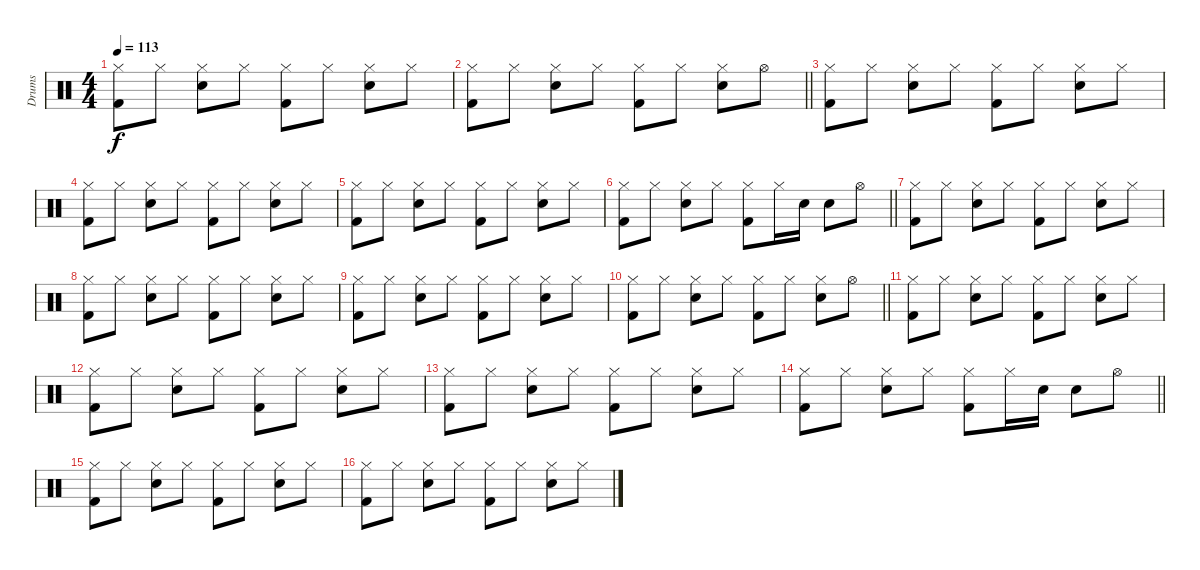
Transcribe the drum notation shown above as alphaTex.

\track ("Drums" "Drums") {instrument percussion}
\staff {score}
\articulation defaults
\ts (4 4)
\tempo 113
\clef neutral
\ks c
("Hi-Hat (closed)" "Kick (hit) 2").8{dy f} "Hi-Hat (closed)".8 ("Hi-Hat (closed)" "Electric Snare (hit)").8 "Hi-Hat (closed)".8 ("Hi-Hat (closed)" "Kick (hit) 2").8 "Hi-Hat (closed)".8 ("Hi-Hat (closed)" "Electric Snare (hit)").8 "Hi-Hat (closed)".8 |
\barLineRight lightlight
("Hi-Hat (closed)" "Kick (hit) 2").8 "Hi-Hat (closed)".8 ("Hi-Hat (closed)" "Electric Snare (hit)").8 "Hi-Hat (closed)".8 ("Hi-Hat (closed)" "Kick (hit) 2").8 "Hi-Hat (closed)".8 ("Hi-Hat (closed)" "Electric Snare (hit)").8 "Hi-Hat (open)".8 |
\section ("" "")
("Hi-Hat (closed)" "Kick (hit) 2").8 "Hi-Hat (closed)".8 ("Hi-Hat (closed)" "Electric Snare (hit)").8 "Hi-Hat (closed)".8 ("Hi-Hat (closed)" "Kick (hit) 2").8 "Hi-Hat (closed)".8 ("Hi-Hat (closed)" "Electric Snare (hit)").8 "Hi-Hat (closed)".8 |
("Hi-Hat (closed)" "Kick (hit) 2").8 "Hi-Hat (closed)".8 ("Hi-Hat (closed)" "Electric Snare (hit)").8 "Hi-Hat (closed)".8 ("Hi-Hat (closed)" "Kick (hit) 2").8 "Hi-Hat (closed)".8 ("Hi-Hat (closed)" "Electric Snare (hit)").8 "Hi-Hat (closed)".8 |
("Hi-Hat (closed)" "Kick (hit) 2").8 "Hi-Hat (closed)".8 ("Hi-Hat (closed)" "Electric Snare (hit)").8 "Hi-Hat (closed)".8 ("Hi-Hat (closed)" "Kick (hit) 2").8 "Hi-Hat (closed)".8 ("Hi-Hat (closed)" "Electric Snare (hit)").8 "Hi-Hat (closed)".8 |
\barLineRight lightlight
("Hi-Hat (closed)" "Kick (hit) 2").8 "Hi-Hat (closed)".8 ("Hi-Hat (closed)" "Electric Snare (hit)").8 "Hi-Hat (closed)".8 ("Hi-Hat (closed)" "Kick (hit) 2").8 "Hi-Hat (closed)".16 "Electric Snare (hit)".16 "Electric Snare (hit)".8 "Hi-Hat (open)".8 |
\section ("" "")
("Hi-Hat (closed)" "Kick (hit) 2").8 "Hi-Hat (closed)".8 ("Hi-Hat (closed)" "Electric Snare (hit)").8 "Hi-Hat (closed)".8 ("Hi-Hat (closed)" "Kick (hit) 2").8 "Hi-Hat (closed)".8 ("Hi-Hat (closed)" "Electric Snare (hit)").8 "Hi-Hat (closed)".8 |
("Hi-Hat (closed)" "Kick (hit) 2").8 "Hi-Hat (closed)".8 ("Hi-Hat (closed)" "Electric Snare (hit)").8 "Hi-Hat (closed)".8 ("Hi-Hat (closed)" "Kick (hit) 2").8 "Hi-Hat (closed)".8 ("Hi-Hat (closed)" "Electric Snare (hit)").8 "Hi-Hat (closed)".8 |
("Hi-Hat (closed)" "Kick (hit) 2").8 "Hi-Hat (closed)".8 ("Hi-Hat (closed)" "Electric Snare (hit)").8 "Hi-Hat (closed)".8 ("Hi-Hat (closed)" "Kick (hit) 2").8 "Hi-Hat (closed)".8 ("Hi-Hat (closed)" "Electric Snare (hit)").8 "Hi-Hat (closed)".8 |
\barLineRight lightlight
("Hi-Hat (closed)" "Kick (hit) 2").8 "Hi-Hat (closed)".8 ("Hi-Hat (closed)" "Electric Snare (hit)").8 "Hi-Hat (closed)".8 ("Hi-Hat (closed)" "Kick (hit) 2").8 "Hi-Hat (closed)".8 ("Hi-Hat (closed)" "Electric Snare (hit)").8 "Hi-Hat (open)".8 |
\section ("" "")
("Hi-Hat (closed)" "Kick (hit) 2").8 "Hi-Hat (closed)".8 ("Hi-Hat (closed)" "Electric Snare (hit)").8 "Hi-Hat (closed)".8 ("Hi-Hat (closed)" "Kick (hit) 2").8 "Hi-Hat (closed)".8 ("Hi-Hat (closed)" "Electric Snare (hit)").8 "Hi-Hat (closed)".8 |
("Hi-Hat (closed)" "Kick (hit) 2").8 "Hi-Hat (closed)".8 ("Hi-Hat (closed)" "Electric Snare (hit)").8 "Hi-Hat (closed)".8 ("Hi-Hat (closed)" "Kick (hit) 2").8 "Hi-Hat (closed)".8 ("Hi-Hat (closed)" "Electric Snare (hit)").8 "Hi-Hat (closed)".8 |
("Hi-Hat (closed)" "Kick (hit) 2").8 "Hi-Hat (closed)".8 ("Hi-Hat (closed)" "Electric Snare (hit)").8 "Hi-Hat (closed)".8 ("Hi-Hat (closed)" "Kick (hit) 2").8 "Hi-Hat (closed)".8 ("Hi-Hat (closed)" "Electric Snare (hit)").8 "Hi-Hat (closed)".8 |
\barLineRight lightlight
("Hi-Hat (closed)" "Kick (hit) 2").8 "Hi-Hat (closed)".8 ("Hi-Hat (closed)" "Electric Snare (hit)").8 "Hi-Hat (closed)".8 ("Hi-Hat (closed)" "Kick (hit) 2").8 "Hi-Hat (closed)".16 "Electric Snare (hit)".16 "Electric Snare (hit)".8 "Hi-Hat (open)".8 |
\section ("" "")
("Hi-Hat (closed)" "Kick (hit) 2").8 "Hi-Hat (closed)".8 ("Hi-Hat (closed)" "Electric Snare (hit)").8 "Hi-Hat (closed)".8 ("Hi-Hat (closed)" "Kick (hit) 2").8 "Hi-Hat (closed)".8 ("Hi-Hat (closed)" "Electric Snare (hit)").8 "Hi-Hat (closed)".8 |
("Hi-Hat (closed)" "Kick (hit) 2").8 "Hi-Hat (closed)".8 ("Hi-Hat (closed)" "Electric Snare (hit)").8 "Hi-Hat (closed)".8 ("Hi-Hat (closed)" "Kick (hit) 2").8 "Hi-Hat (closed)".8 ("Hi-Hat (closed)" "Electric Snare (hit)").8 "Hi-Hat (closed)".8
